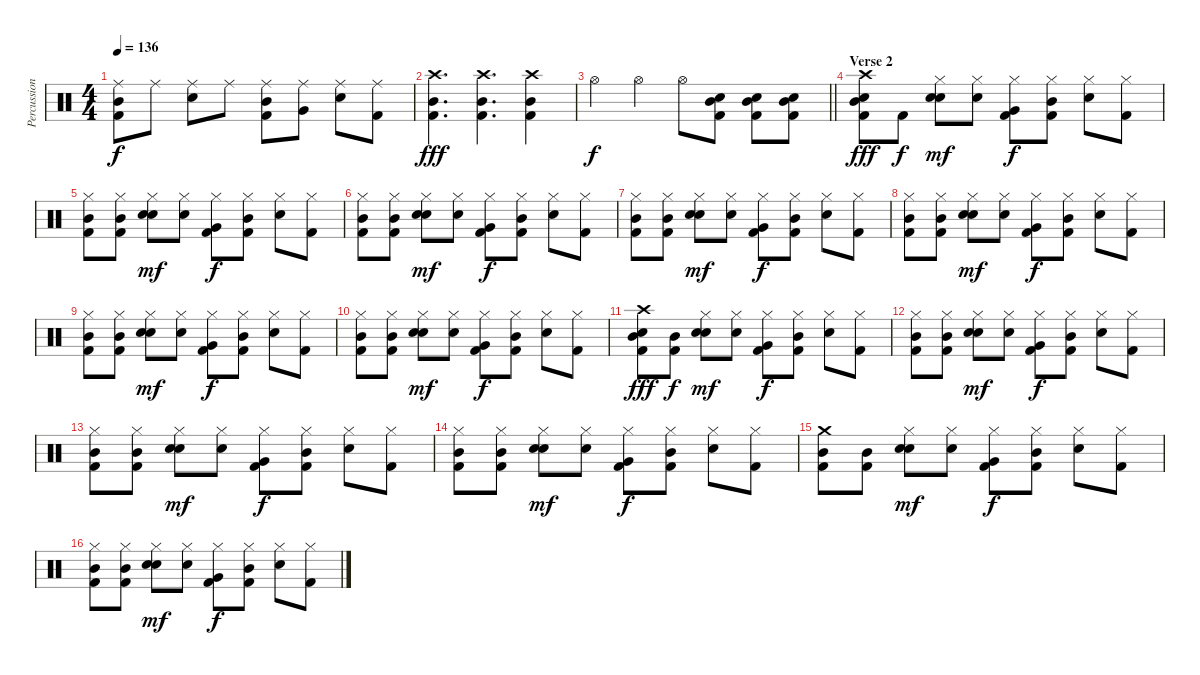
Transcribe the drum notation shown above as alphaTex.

\track ("Percussion" "Percussion") {instrument percussion}
\staff {score}
\articulation defaults
\ts (4 4)
\tempo 136
\clef neutral
\ks c
("Ride (middle)" "Mid Tom (hit)" "Kick (hit) 2").8{dy f} "Ride (middle)".8 ("Ride (middle)" "Snare (hit) 2").8 "Ride (middle)".8 ("Ride (middle)" "Mid Tom (hit)" "Kick (hit) 2").8 ("Ride (middle)" "Very Low Tom (hit)").8 ("Ride (middle)" "Snare (hit) 2").8 ("Ride (middle)" "Kick (hit) 2").8 |
("Crash high (hit)" "Mid Tom (hit)" "Kick (hit) 2").4{d dy fff} ("Crash high (hit)" "Mid Tom (hit)" "Kick (hit) 2").4{d} ("Crash high (hit)" "Mid Tom (hit)" "Kick (hit) 2").4 |
\barLineRight lightlight "Hi-Hat (open)".4{dy f} "Hi-Hat (open)".4 "Hi-Hat (open)".8
("Mid Tom (hit)" "Snare (hit) 2" "Kick (hit) 2").8 ("Mid Tom (hit)" "Snare (hit) 2" "Kick (hit) 2").8 ("Mid Tom (hit)" "Snare (hit) 2" "Kick (hit) 2").8 |
\section ("" "Verse 2")
("Crash high (hit)" "Mid Tom (hit)" "Snare (hit) 2" "Kick (hit) 2").8{dy fff} "Kick (hit) 2".8{dy f} ("Hi-Hat (closed)" "Hand Clap (hit)" "Snare (hit) 2").8{dy mf} ("Hi-Hat (closed)" "Hand Clap (hit)").8 ("Hi-Hat (closed)" "Very Low Tom (hit)" "Kick (hit) 2").8{dy f} ("Hi-Hat (closed)" "Mid Tom (hit)" "Kick (hit) 2").8 ("Hi-Hat (closed)" "Snare (hit) 2").8 ("Hi-Hat (closed)" "Kick (hit) 2").8 |
("Hi-Hat (closed)" "Mid Tom (hit)" "Kick (hit) 2").8 ("Hi-Hat (closed)" "Mid Tom (hit)" "Kick (hit) 2").8 ("Hi-Hat (closed)" "Hand Clap (hit)" "Snare (hit) 2").8{dy mf} ("Hi-Hat (closed)" "Hand Clap (hit)").8 ("Hi-Hat (closed)" "Very Low Tom (hit)" "Kick (hit) 2").8{dy f} ("Hi-Hat (closed)" "Mid Tom (hit)" "Kick (hit) 2").8 ("Hi-Hat (closed)" "Snare (hit) 2").8 ("Hi-Hat (closed)" "Kick (hit) 2").8 |
("Hi-Hat (closed)" "Mid Tom (hit)" "Kick (hit) 2").8 ("Hi-Hat (closed)" "Mid Tom (hit)" "Kick (hit) 2").8 ("Hi-Hat (closed)" "Hand Clap (hit)" "Snare (hit) 2").8{dy mf} ("Hi-Hat (closed)" "Hand Clap (hit)").8 ("Hi-Hat (closed)" "Very Low Tom (hit)" "Kick (hit) 2").8{dy f} ("Hi-Hat (closed)" "Mid Tom (hit)" "Kick (hit) 2").8 ("Hi-Hat (closed)" "Snare (hit) 2").8 ("Hi-Hat (closed)" "Kick (hit) 2").8 |
("Hi-Hat (closed)" "Mid Tom (hit)" "Kick (hit) 2").8 ("Hi-Hat (closed)" "Mid Tom (hit)" "Kick (hit) 2").8 ("Hi-Hat (closed)" "Hand Clap (hit)" "Snare (hit) 2").8{dy mf} ("Hi-Hat (closed)" "Hand Clap (hit)").8 ("Hi-Hat (closed)" "Very Low Tom (hit)" "Kick (hit) 2").8{dy f} ("Hi-Hat (closed)" "Mid Tom (hit)" "Kick (hit) 2").8 ("Hi-Hat (closed)" "Snare (hit) 2").8 ("Hi-Hat (closed)" "Kick (hit) 2").8 |
("Hi-Hat (closed)" "Mid Tom (hit)" "Kick (hit) 2").8 ("Hi-Hat (closed)" "Mid Tom (hit)" "Kick (hit) 2").8 ("Hi-Hat (closed)" "Hand Clap (hit)" "Snare (hit) 2").8{dy mf} ("Hi-Hat (closed)" "Hand Clap (hit)").8 ("Hi-Hat (closed)" "Very Low Tom (hit)" "Kick (hit) 2").8{dy f} ("Hi-Hat (closed)" "Mid Tom (hit)" "Kick (hit) 2").8 ("Hi-Hat (closed)" "Snare (hit) 2").8 ("Hi-Hat (closed)" "Kick (hit) 2").8 |
("Hi-Hat (closed)" "Mid Tom (hit)" "Kick (hit) 2").8 ("Hi-Hat (closed)" "Mid Tom (hit)" "Kick (hit) 2").8 ("Hi-Hat (closed)" "Hand Clap (hit)" "Snare (hit) 2").8{dy mf} ("Hi-Hat (closed)" "Hand Clap (hit)").8 ("Hi-Hat (closed)" "Very Low Tom (hit)" "Kick (hit) 2").8{dy f} ("Hi-Hat (closed)" "Mid Tom (hit)" "Kick (hit) 2").8 ("Hi-Hat (closed)" "Snare (hit) 2").8 ("Hi-Hat (closed)" "Kick (hit) 2").8 |
("Hi-Hat (closed)" "Mid Tom (hit)" "Kick (hit) 2").8 ("Hi-Hat (closed)" "Mid Tom (hit)" "Kick (hit) 2").8 ("Hi-Hat (closed)" "Hand Clap (hit)" "Snare (hit) 2").8{dy mf} ("Hi-Hat (closed)" "Hand Clap (hit)").8 ("Hi-Hat (closed)" "Very Low Tom (hit)" "Kick (hit) 2").8{dy f} ("Hi-Hat (closed)" "Mid Tom (hit)" "Kick (hit) 2").8 ("Hi-Hat (closed)" "Snare (hit) 2").8 ("Hi-Hat (closed)" "Kick (hit) 2").8 |
("Crash high (hit)" "Mid Tom (hit)" "Snare (hit) 2" "Kick (hit) 2").8{dy fff} ("Mid Tom (hit)" "Kick (hit) 2").8{dy f} ("Hi-Hat (closed)" "Hand Clap (hit)" "Snare (hit) 2").8{dy mf} ("Hi-Hat (closed)" "Hand Clap (hit)").8 ("Hi-Hat (closed)" "Very Low Tom (hit)" "Kick (hit) 2").8{dy f} ("Hi-Hat (closed)" "Mid Tom (hit)" "Kick (hit) 2").8 ("Hi-Hat (closed)" "Snare (hit) 2").8 ("Hi-Hat (closed)" "Kick (hit) 2").8 |
("Hi-Hat (closed)" "Mid Tom (hit)" "Kick (hit) 2").8 ("Hi-Hat (closed)" "Mid Tom (hit)" "Kick (hit) 2").8 ("Hi-Hat (closed)" "Hand Clap (hit)" "Snare (hit) 2").8{dy mf} ("Hi-Hat (closed)" "Hand Clap (hit)").8 ("Hi-Hat (closed)" "Very Low Tom (hit)" "Kick (hit) 2").8{dy f} ("Hi-Hat (closed)" "Mid Tom (hit)" "Kick (hit) 2").8 ("Hi-Hat (closed)" "Snare (hit) 2").8 ("Hi-Hat (closed)" "Kick (hit) 2").8 |
("Hi-Hat (closed)" "Mid Tom (hit)" "Kick (hit) 2").8 ("Hi-Hat (closed)" "Mid Tom (hit)" "Kick (hit) 2").8 ("Hi-Hat (closed)" "Hand Clap (hit)" "Snare (hit) 2").8{dy mf} ("Hi-Hat (closed)" "Hand Clap (hit)").8 ("Hi-Hat (closed)" "Very Low Tom (hit)" "Kick (hit) 2").8{dy f} ("Hi-Hat (closed)" "Mid Tom (hit)" "Kick (hit) 2").8 ("Hi-Hat (closed)" "Snare (hit) 2").8 ("Hi-Hat (closed)" "Kick (hit) 2").8 |
("Hi-Hat (closed)" "Mid Tom (hit)" "Kick (hit) 2").8 ("Hi-Hat (closed)" "Mid Tom (hit)" "Kick (hit) 2").8 ("Hi-Hat (closed)" "Hand Clap (hit)" "Snare (hit) 2").8{dy mf} ("Hi-Hat (closed)" "Hand Clap (hit)").8 ("Hi-Hat (closed)" "Very Low Tom (hit)" "Kick (hit) 2").8{dy f} ("Hi-Hat (closed)" "Mid Tom (hit)" "Kick (hit) 2").8 ("Hi-Hat (closed)" "Snare (hit) 2").8 ("Hi-Hat (closed)" "Kick (hit) 2").8 |
("Crash medium (hit)" "Mid Tom (hit)" "Kick (hit) 2").8 ("Mid Tom (hit)" "Kick (hit) 2").8 ("Hi-Hat (closed)" "Hand Clap (hit)" "Snare (hit) 2").8{dy mf} ("Hi-Hat (closed)" "Hand Clap (hit)").8 ("Hi-Hat (closed)" "Very Low Tom (hit)" "Kick (hit) 2").8{dy f} ("Hi-Hat (closed)" "Mid Tom (hit)" "Kick (hit) 2").8 ("Hi-Hat (closed)" "Snare (hit) 2").8 ("Hi-Hat (closed)" "Kick (hit) 2").8 |
("Hi-Hat (closed)" "Mid Tom (hit)" "Kick (hit) 2").8 ("Hi-Hat (closed)" "Mid Tom (hit)" "Kick (hit) 2").8 ("Hi-Hat (closed)" "Hand Clap (hit)" "Snare (hit) 2").8{dy mf} ("Hi-Hat (closed)" "Hand Clap (hit)").8 ("Hi-Hat (closed)" "Very Low Tom (hit)" "Kick (hit) 2").8{dy f} ("Hi-Hat (closed)" "Mid Tom (hit)" "Kick (hit) 2").8 ("Hi-Hat (closed)" "Snare (hit) 2").8 ("Hi-Hat (closed)" "Kick (hit) 2").8
